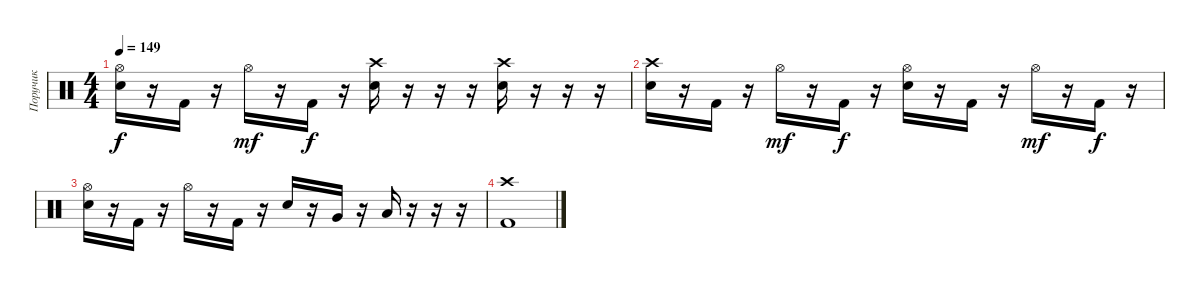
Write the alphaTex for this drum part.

\track ("Поручик" "Поручик") {instrument percussion}
\staff {score}
\articulation defaults
\ts (4 4)
\tempo 149
\clef neutral
\ks c
("Hi-Hat (open)" "Snare (hit) 2").16{dy f} r.16 "Kick (hit) 2".16 r.16 "Hi-Hat (open)".16{dy mf} r.16 "Kick (hit) 2".16{dy f} r.16 ("Crash high (hit)" "Snare (hit) 2").16 r.16 r.16 r.16 ("Crash high (hit)" "Snare (hit) 2").16 r.16 r.16 r.16 |
("Crash high (hit)" "Snare (hit) 2").16 r.16 "Kick (hit) 2".16 r.16 "Hi-Hat (open)".16{dy mf} r.16 "Kick (hit) 2".16{dy f} r.16 ("Hi-Hat (open)" "Snare (hit) 2").16 r.16 "Kick (hit) 2".16 r.16 "Hi-Hat (open)".16{dy mf} r.16 "Kick (hit) 2".16{dy f} r.16 |
("Hi-Hat (open)" "Snare (hit) 2").16 r.16 "Kick (hit) 2".16 r.16 "Hi-Hat (open)".16 r.16 "Kick (hit) 2".16 r.16 "Snare (hit) 2".16 r.16 "Very Low Tom (hit)".16 r.16 "Low Floor Tom (hit)".16 r.16 r.16 r.16 |
("Crash high (hit)" "Kick (hit) 2").1
